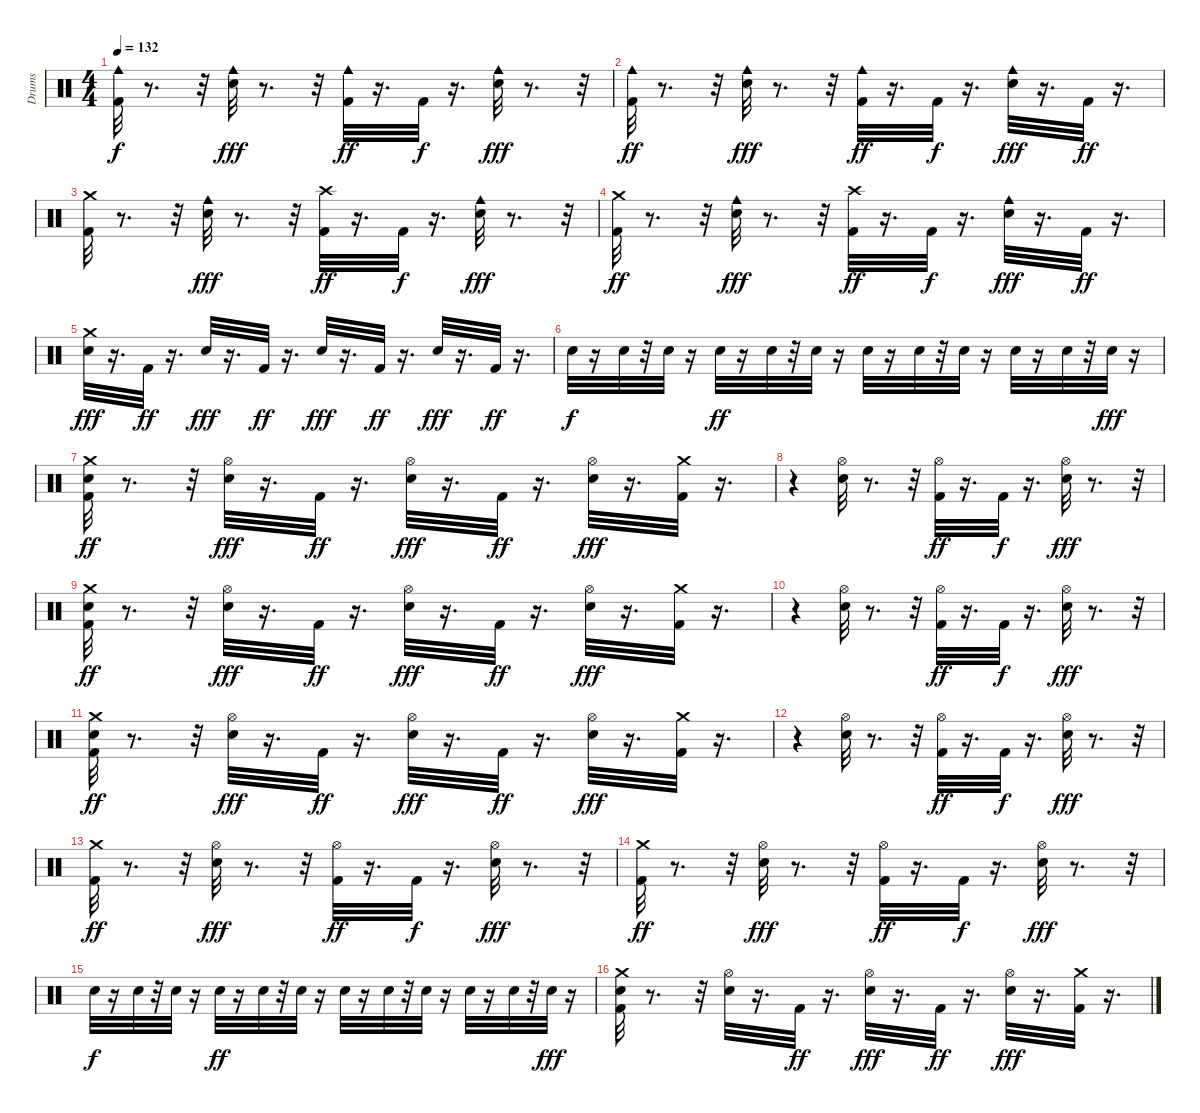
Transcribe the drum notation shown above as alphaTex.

\track ("Drums" "Drums") {instrument percussion}
\staff {score}
\articulation defaults
\ts (4 4)
\tempo 132
\clef neutral
\ks c
("Kick (hit) 2" "Cowbell medium (hit)").32{dy f} r.8{d} r.32 ("Snare (hit) 2" "Cowbell medium (hit)").32{dy fff} r.8{d} r.32 ("Kick (hit) 2" "Cowbell medium (hit)").32{dy ff} r.16{d} "Kick (hit) 2".32{dy f} r.16{d} ("Snare (hit) 2" "Cowbell medium (hit)").32{dy fff} r.8{d} r.32 |
("Cowbell medium (hit)" "Kick (hit) 2").32{dy ff} r.8{d} r.32 ("Cowbell medium (hit)" "Snare (hit) 2").32{dy fff} r.8{d} r.32 ("Cowbell medium (hit)" "Kick (hit) 2").32{dy ff} r.16{d} "Kick (hit) 2".32{dy f} r.16{d} ("Cowbell medium (hit)" "Snare (hit) 2").32{dy fff} r.16{d} "Kick (hit) 2".32{dy ff} r.16{d} |
("Crash medium (hit)" "Kick (hit) 2").32 r.8{d} r.32 ("Snare (hit) 2" "Cowbell medium (hit)").32{dy fff} r.8{d} r.32 ("Crash high (hit)" "Kick (hit) 2").32{dy ff} r.16{d} "Kick (hit) 2".32{dy f} r.16{d} ("Snare (hit) 2" "Cowbell medium (hit)").32{dy fff} r.8{d} r.32 |
("Crash medium (hit)" "Kick (hit) 2").32{dy ff} r.8{d} r.32 ("Cowbell medium (hit)" "Snare (hit) 2").32{dy fff} r.8{d} r.32 ("Crash high (hit)" "Kick (hit) 2").32{dy ff} r.16{d} "Kick (hit) 2".32{dy f} r.16{d} ("Cowbell medium (hit)" "Snare (hit) 2").32{dy fff} r.16{d} "Kick (hit) 2".32{dy ff} r.16{d} |
("Crash medium (hit)" "Snare (hit) 2").32{dy fff} r.16{d} "Kick (hit) 2".32{dy ff} r.16{d} "Snare (hit) 2".32{dy fff} r.16{d} "Kick (hit) 2".32{dy ff} r.16{d} "Snare (hit) 2".32{dy fff} r.16{d} "Kick (hit) 2".32{dy ff} r.16{d} "Snare (hit) 2".32{dy fff} r.16{d} "Kick (hit) 2".32{dy ff} r.16{d} |
"Snare (hit) 2".32{dy f} r.16 "Snare (hit) 2".32 r.32 "Snare (hit) 2".32 r.16 "Snare (hit) 2".32{dy ff} r.16 "Snare (hit) 2".32 r.32 "Snare (hit) 2".32 r.16 "Snare (hit) 2".32 r.16 "Snare (hit) 2".32 r.32 "Snare (hit) 2".32 r.16 "Snare (hit) 2".32 r.16 "Snare (hit) 2".32 r.32 "Snare (hit) 2".32{dy fff} r.16 |
("Snare (hit) 2" "Crash medium (hit)" "Kick (hit) 2").32{dy ff} r.8{d} r.32 ("Hi-Hat (open)" "Snare (hit) 2").32{dy fff} r.16{d} "Kick (hit) 2".32{dy ff} r.16{d} ("Hi-Hat (open)" "Snare (hit) 2").32{dy fff} r.16{d} "Kick (hit) 2".32{dy ff} r.16{d} ("Hi-Hat (open)" "Snare (hit) 2").32{dy fff} r.16{d} ("Kick (hit) 2" "Crash medium (hit)").32 r.16{d} |
r.4 ("Hi-Hat (open)" "Snare (hit) 2").32 r.8{d} r.32 ("Hi-Hat (open)" "Kick (hit) 2").32{dy ff} r.16{d} "Kick (hit) 2".32{dy f} r.16{d} ("Hi-Hat (open)" "Snare (hit) 2").32{dy fff} r.8{d} r.32 |
("Snare (hit) 2" "Crash medium (hit)" "Kick (hit) 2").32{dy ff} r.8{d} r.32 ("Hi-Hat (open)" "Snare (hit) 2").32{dy fff} r.16{d} "Kick (hit) 2".32{dy ff} r.16{d} ("Hi-Hat (open)" "Snare (hit) 2").32{dy fff} r.16{d} "Kick (hit) 2".32{dy ff} r.16{d} ("Hi-Hat (open)" "Snare (hit) 2").32{dy fff} r.16{d} ("Kick (hit) 2" "Crash medium (hit)").32 r.16{d} |
r.4 ("Hi-Hat (open)" "Snare (hit) 2").32 r.8{d} r.32 ("Hi-Hat (open)" "Kick (hit) 2").32{dy ff} r.16{d} "Kick (hit) 2".32{dy f} r.16{d} ("Hi-Hat (open)" "Snare (hit) 2").32{dy fff} r.8{d} r.32 |
("Snare (hit) 2" "Crash medium (hit)" "Kick (hit) 2").32{dy ff} r.8{d} r.32 ("Hi-Hat (open)" "Snare (hit) 2").32{dy fff} r.16{d} "Kick (hit) 2".32{dy ff} r.16{d} ("Hi-Hat (open)" "Snare (hit) 2").32{dy fff} r.16{d} "Kick (hit) 2".32{dy ff} r.16{d} ("Hi-Hat (open)" "Snare (hit) 2").32{dy fff} r.16{d} ("Kick (hit) 2" "Crash medium (hit)").32 r.16{d} |
r.4 ("Hi-Hat (open)" "Snare (hit) 2").32 r.8{d} r.32 ("Hi-Hat (open)" "Kick (hit) 2").32{dy ff} r.16{d} "Kick (hit) 2".32{dy f} r.16{d} ("Hi-Hat (open)" "Snare (hit) 2").32{dy fff} r.8{d} r.32 |
("Crash medium (hit)" "Kick (hit) 2").32{dy ff} r.8{d} r.32 ("Hi-Hat (open)" "Snare (hit) 2").32{dy fff} r.8{d} r.32 ("Hi-Hat (open)" "Kick (hit) 2").32{dy ff} r.16{d} "Kick (hit) 2".32{dy f} r.16{d} ("Hi-Hat (open)" "Snare (hit) 2").32{dy fff} r.8{d} r.32 |
("Crash medium (hit)" "Kick (hit) 2").32{dy ff} r.8{d} r.32 ("Hi-Hat (open)" "Snare (hit) 2").32{dy fff} r.8{d} r.32 ("Hi-Hat (open)" "Kick (hit) 2").32{dy ff} r.16{d} "Kick (hit) 2".32{dy f} r.16{d} ("Hi-Hat (open)" "Snare (hit) 2").32{dy fff} r.8{d} r.32 |
"Snare (hit) 2".32{dy f} r.16 "Snare (hit) 2".32 r.32 "Snare (hit) 2".32 r.16 "Snare (hit) 2".32{dy ff} r.16 "Snare (hit) 2".32 r.32 "Snare (hit) 2".32 r.16 "Snare (hit) 2".32 r.16 "Snare (hit) 2".32 r.32 "Snare (hit) 2".32 r.16 "Snare (hit) 2".32 r.16 "Snare (hit) 2".32 r.32 "Snare (hit) 2".32{dy fff} r.16 |
("Snare (hit) 2" "Crash medium (hit)" "Kick (hit) 2").32 r.8{d} r.32 ("Hi-Hat (open)" "Snare (hit) 2").32 r.16{d} "Kick (hit) 2".32{dy ff} r.16{d} ("Hi-Hat (open)" "Snare (hit) 2").32{dy fff} r.16{d} "Kick (hit) 2".32{dy ff} r.16{d} ("Hi-Hat (open)" "Snare (hit) 2").32{dy fff} r.16{d} ("Kick (hit) 2" "Crash medium (hit)").32 r.16{d}
